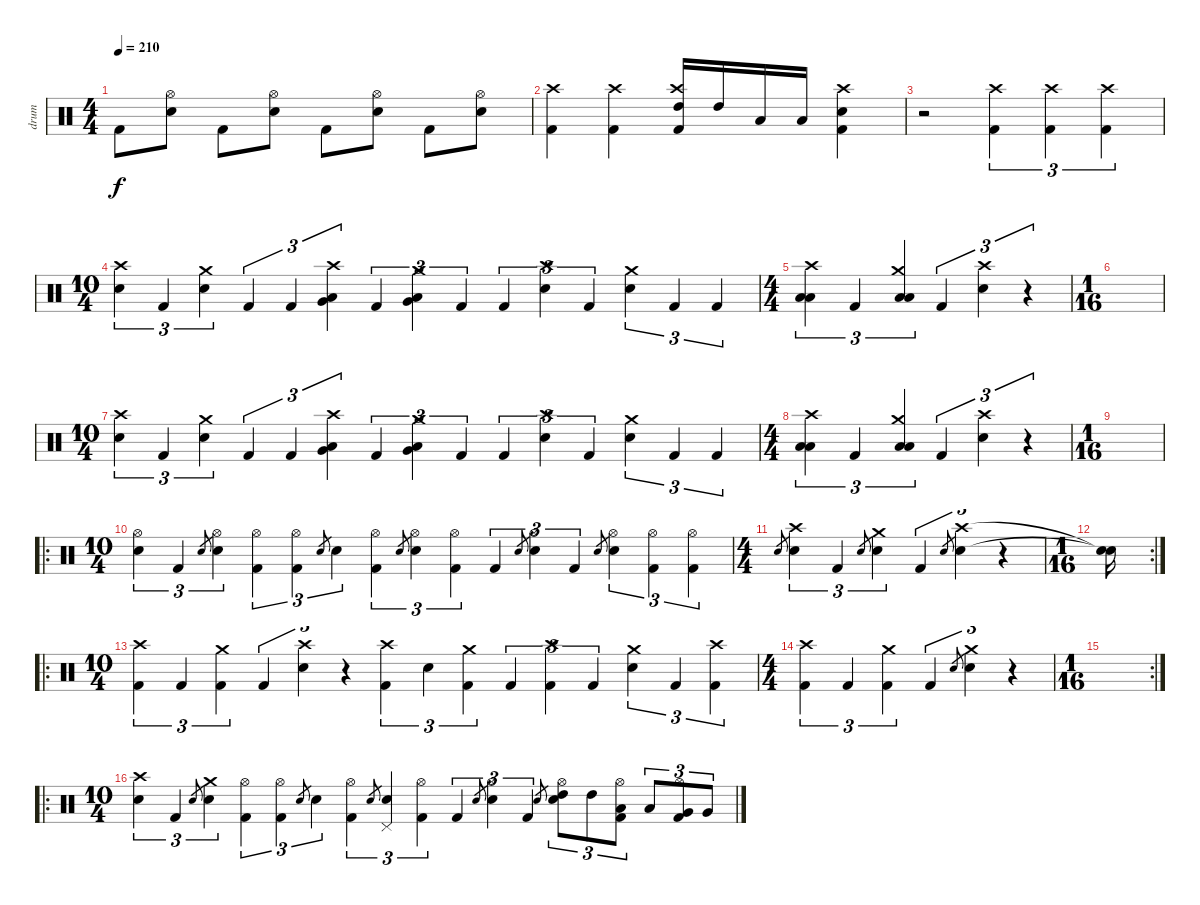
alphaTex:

\track ("drum" "drum") {instrument percussion}
\staff {score}
\articulation defaults
\ts (4 4)
\tempo 210
\clef neutral
\ks c "Kick (hit) 2".8{dy f}
("Hi-Hat (open)" "Electric Snare (hit)").8 "Kick (hit) 2".8 ("Hi-Hat (open)" "Electric Snare (hit)").8 "Kick (hit) 2".8 ("Hi-Hat (open)" "Electric Snare (hit)").8 "Kick (hit) 2".8 ("Hi-Hat (open)" "Electric Snare (hit)").8 |
("Crash high (hit)" "Kick (hit) 2").4 ("Crash high (hit)" "Kick (hit) 2").4 ("Crash high (hit)" "High Tom (hit)" "Kick (hit) 2").16 "High Tom (hit)".16 "Low Tom (hit)".16 "Low Tom (hit)".16 ("Crash high (hit)" "Electric Snare (hit)" "Kick (hit) 2").4 |
r.2 ("Crash high (hit)" "Kick (hit) 2").4{tu (3 2)} ("Crash high (hit)" "Kick (hit) 2").4{tu (3 2)} ("Crash high (hit)" "Kick (hit) 2").4{tu (3 2)} |
\ts (10 4)
("Crash high (hit)" "Electric Snare (hit)").4{tu (3 2)} "Kick (hit) 2".4{tu (3 2)} ("Crash medium (hit)" "Electric Snare (hit)").4{tu (3 2)} "Kick (hit) 2".4{tu (3 2)} "Kick (hit) 2".4{tu (3 2)} ("Crash high (hit)" "Very Low Tom (hit)" "Low Floor Tom (hit)").4{tu (3 2)} "Kick (hit) 2".4{tu (3 2)} ("Crash medium (hit)" "Very Low Tom (hit)" "Low Floor Tom (hit)").4{tu (3 2)} "Kick (hit) 2".4{tu (3 2)} "Kick (hit) 2".4{tu (3 2)} ("Crash high (hit)" "Electric Snare (hit)").4{tu (3 2)} "Kick (hit) 2".4{tu (3 2)} ("Crash medium (hit)" "Electric Snare (hit)").4{tu (3 2)} "Kick (hit) 2".4{tu (3 2)} "Kick (hit) 2".4{tu (3 2)} |
\ts (4 4)
("Crash high (hit)" "Low Floor Tom (hit)" "Low Tom (hit)").4{tu (3 2)} "Kick (hit) 2".4{tu (3 2)} ("Crash medium (hit)" "Low Floor Tom (hit)" "Low Tom (hit)").4{tu (3 2)} "Kick (hit) 2".4{tu (3 2)} ("Crash high (hit)" "Electric Snare (hit)").4{tu (3 2)} r.4{tu (3 2)} |
\ts (1 16)
|
\ts (10 4)
("Crash high (hit)" "Electric Snare (hit)").4{tu (3 2)} "Kick (hit) 2".4{tu (3 2)} ("Crash medium (hit)" "Electric Snare (hit)").4{tu (3 2)} "Kick (hit) 2".4{tu (3 2)} "Kick (hit) 2".4{tu (3 2)} ("Crash high (hit)" "Very Low Tom (hit)" "Low Floor Tom (hit)").4{tu (3 2)} "Kick (hit) 2".4{tu (3 2)} ("Crash medium (hit)" "Very Low Tom (hit)" "Low Floor Tom (hit)").4{tu (3 2)} "Kick (hit) 2".4{tu (3 2)} "Kick (hit) 2".4{tu (3 2)} ("Crash high (hit)" "Electric Snare (hit)").4{tu (3 2)} "Kick (hit) 2".4{tu (3 2)} ("Crash medium (hit)" "Electric Snare (hit)").4{tu (3 2)} "Kick (hit) 2".4{tu (3 2)} "Kick (hit) 2".4{tu (3 2)} |
\ts (4 4)
("Crash high (hit)" "Low Floor Tom (hit)" "Low Tom (hit)").4{tu (3 2)} "Kick (hit) 2".4{tu (3 2)} ("Crash medium (hit)" "Low Floor Tom (hit)" "Low Tom (hit)").4{tu (3 2)} "Kick (hit) 2".4{tu (3 2)} ("Crash high (hit)" "Electric Snare (hit)").4{tu (3 2)} r.4{tu (3 2)} |
\ts (1 16)
|
\ro
\ts (10 4)
("Hi-Hat (open)" "Electric Snare (hit)").4{tu (3 2)} "Kick (hit) 2".4{tu (3 2)} "Electric Snare (hit)".8{gr} ("Hi-Hat (open)" "Electric Snare (hit)").4{tu (3 2)} ("Hi-Hat (open)" "Kick (hit) 2").4{tu (3 2)} ("Hi-Hat (open)" "Kick (hit) 2").4{tu (3 2)} "Electric Snare (hit)".8{gr} "Electric Snare (hit)".4{tu (3 2)} ("Hi-Hat (open)" "Kick (hit) 2").4{tu (3 2)} "Electric Snare (hit)".8{gr} ("Hi-Hat (open)" "Electric Snare (hit)").4{tu (3 2)} ("Hi-Hat (open)" "Kick (hit) 2").4{tu (3 2)} "Kick (hit) 2".4{tu (3 2)} "Electric Snare (hit)".8{gr} ("Hi-Hat (open)" "Electric Snare (hit)").4{tu (3 2)} "Kick (hit) 2".4{tu (3 2)} "Electric Snare (hit)".8{gr} ("Hi-Hat (open)" "Electric Snare (hit)").4{tu (3 2)} ("Hi-Hat (open)" "Kick (hit) 2").4{tu (3 2)} ("Hi-Hat (open)" "Kick (hit) 2").4{tu (3 2)} |
\ts (4 4)
"Electric Snare (hit)".8{gr} ("Crash high (hit)" "Electric Snare (hit)").4{tu (3 2)} "Kick (hit) 2".4{tu (3 2)} "Electric Snare (hit)".8{gr} ("Crash medium (hit)" "Electric Snare (hit)").4{tu (3 2)} "Kick (hit) 2".4{tu (3 2)} "Electric Snare (hit)".8{gr} ("Crash high (hit)" "Electric Snare (hit)").4{tu (3 2)} r.4{tu (3 2)} |
\rc 2
\ts (1 16)
("Snare (hit)"{t} "Snare (hit)"{t}).16 |
\ro
\ts (10 4)
("Crash high (hit)" "Kick (hit) 2").4{tu (3 2)} "Kick (hit) 2".4{tu (3 2)} ("Crash medium (hit)" "Kick (hit) 2").4{tu (3 2)} "Kick (hit) 2".4{tu (3 2)} ("Crash high (hit)" "Electric Snare (hit)").4{tu (3 2)} r.4{tu (3 2)} ("Crash high (hit)" "Kick (hit) 2").4{tu (3 2)} "Electric Snare (hit)".4{tu (3 2)} ("Crash medium (hit)" "Kick (hit) 2").4{tu (3 2)} "Kick (hit) 2".4{tu (3 2)} ("Crash high (hit)" "Kick (hit) 2").4{tu (3 2)} "Kick (hit) 2".4{tu (3 2)} ("Crash medium (hit)" "Electric Snare (hit)").4{tu (3 2)} "Kick (hit) 2".4{tu (3 2)} ("Crash high (hit)" "Kick (hit) 2").4{tu (3 2)} |
\ts (4 4)
("Crash high (hit)" "Kick (hit) 2").4{tu (3 2)} "Kick (hit) 2".4{tu (3 2)} ("Crash medium (hit)" "Kick (hit) 2").4{tu (3 2)} "Kick (hit) 2".4{tu (3 2)} "Electric Snare (hit)".8{gr} ("Crash medium (hit)" "Electric Snare (hit)").4{tu (3 2)} r.4{tu (3 2)} |
\rc 2
\ts (1 16)
|
\ro
\ts (10 4)
("Crash high (hit)" "Electric Snare (hit)").4{tu (3 2)} "Kick (hit) 2".4{tu (3 2)} "Electric Snare (hit)".8{gr} ("Crash medium (hit)" "Electric Snare (hit)").4{tu (3 2)} ("Hi-Hat (open)" "Kick (hit) 2").4{tu (3 2)} ("Hi-Hat (open)" "Kick (hit) 2").4{tu (3 2)} "Electric Snare (hit)".8{gr} "Electric Snare (hit)".4{tu (3 2)} ("Hi-Hat (open)" "Kick (hit) 2").4{tu (3 2)} "Electric Snare (hit)".8{gr} ("Pedal Hi-Hat (hit)" "Electric Snare (hit)").4{tu (3 2)} ("Hi-Hat (open)" "Kick (hit) 2").4{tu (3 2)} "Kick (hit) 2".4{tu (3 2)} "Electric Snare (hit)".8{gr} ("Hi-Hat (open)" "Electric Snare (hit)").4{tu (3 2)} "Kick (hit) 2".4{tu (3 2)} "Electric Snare (hit)".8{gr} ("Hi-Hat (open)" "High Tom (hit)" "Electric Snare (hit)").8{tu (3 2)} "High Tom (hit)".8{tu (3 2)} ("Hi-Hat (open)" "Low Tom (hit)" "Kick (hit) 2").8{tu (3 2)} "Low Tom (hit)".8{tu (3 2)} ("Hi-Hat (open)" "Very Low Tom (hit)" "Kick (hit) 2").8{tu (3 2)} "Very Low Tom (hit)".8{tu (3 2)}
